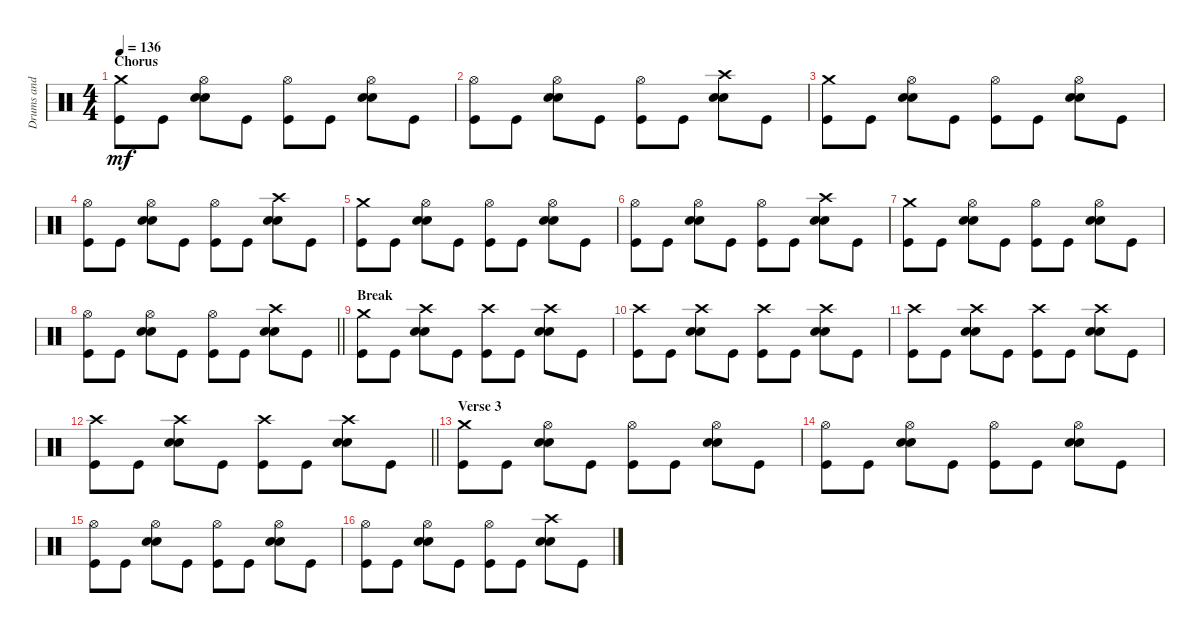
\track ("Drums and Percussions" "Drums and ") {instrument percussion}
\staff {score}
\articulation defaults
\ts (4 4)
\section ("" "Chorus")
\tempo 136
\clef neutral
\ks c
("Crash medium (hit)" "Kick (hit)").8{dy mf} "Kick (hit)".8 ("Hi-Hat (open)" "Electric Snare (hit)" "Electric Snare (hit)").8 "Kick (hit)".8 ("Hi-Hat (open)" "Kick (hit)").8 "Kick (hit)".8 ("Hi-Hat (open)" "Electric Snare (hit)" "Electric Snare (hit)").8 "Kick (hit)".8 |
("Hi-Hat (open)" "Kick (hit)").8 "Kick (hit)".8 ("Hi-Hat (open)" "Electric Snare (hit)" "Electric Snare (hit)").8 "Kick (hit)".8 ("Hi-Hat (open)" "Kick (hit)").8 "Kick (hit)".8 ("Crash high (hit)" "Electric Snare (hit)" "Electric Snare (hit)").8 "Kick (hit)".8 |
("Crash medium (hit)" "Kick (hit)").8 "Kick (hit)".8 ("Hi-Hat (open)" "Electric Snare (hit)" "Electric Snare (hit)").8 "Kick (hit)".8 ("Hi-Hat (open)" "Kick (hit)").8 "Kick (hit)".8 ("Hi-Hat (open)" "Electric Snare (hit)" "Electric Snare (hit)").8 "Kick (hit)".8 |
("Hi-Hat (open)" "Kick (hit)").8 "Kick (hit)".8 ("Hi-Hat (open)" "Electric Snare (hit)" "Electric Snare (hit)").8 "Kick (hit)".8 ("Hi-Hat (open)" "Kick (hit)").8 "Kick (hit)".8 ("Crash high (hit)" "Electric Snare (hit)" "Electric Snare (hit)").8 "Kick (hit)".8 |
("Crash medium (hit)" "Kick (hit)").8 "Kick (hit)".8 ("Hi-Hat (open)" "Electric Snare (hit)" "Electric Snare (hit)").8 "Kick (hit)".8 ("Hi-Hat (open)" "Kick (hit)").8 "Kick (hit)".8 ("Hi-Hat (open)" "Electric Snare (hit)" "Electric Snare (hit)").8 "Kick (hit)".8 |
("Hi-Hat (open)" "Kick (hit)").8 "Kick (hit)".8 ("Hi-Hat (open)" "Electric Snare (hit)" "Electric Snare (hit)").8 "Kick (hit)".8 ("Hi-Hat (open)" "Kick (hit)").8 "Kick (hit)".8 ("Crash high (hit)" "Electric Snare (hit)" "Electric Snare (hit)").8 "Kick (hit)".8 |
("Crash medium (hit)" "Kick (hit)").8 "Kick (hit)".8 ("Hi-Hat (open)" "Electric Snare (hit)" "Electric Snare (hit)").8 "Kick (hit)".8 ("Hi-Hat (open)" "Kick (hit)").8 "Kick (hit)".8 ("Hi-Hat (open)" "Electric Snare (hit)" "Electric Snare (hit)").8 "Kick (hit)".8 |
\barLineRight lightlight
("Hi-Hat (open)" "Kick (hit)").8 "Kick (hit)".8 ("Hi-Hat (open)" "Electric Snare (hit)" "Electric Snare (hit)").8 "Kick (hit)".8 ("Hi-Hat (open)" "Kick (hit)").8 "Kick (hit)".8 ("Crash high (hit)" "Electric Snare (hit)" "Electric Snare (hit)").8 "Kick (hit)".8 |
\section ("" "Break")
("Crash medium (hit)" "Kick (hit)").8 "Kick (hit)".8 ("Crash high (hit)" "Electric Snare (hit)" "Electric Snare (hit)").8 "Kick (hit)".8 ("Crash high (hit)" "Kick (hit)").8 "Kick (hit)".8 ("Crash high (hit)" "Electric Snare (hit)" "Electric Snare (hit)").8 "Kick (hit)".8 |
("Crash high (hit)" "Kick (hit)").8 "Kick (hit)".8 ("Crash high (hit)" "Electric Snare (hit)" "Electric Snare (hit)").8 "Kick (hit)".8 ("Crash high (hit)" "Kick (hit)").8 "Kick (hit)".8 ("Crash high (hit)" "Electric Snare (hit)" "Electric Snare (hit)").8 "Kick (hit)".8 |
("Crash high (hit)" "Kick (hit)").8 "Kick (hit)".8 ("Crash high (hit)" "Electric Snare (hit)" "Electric Snare (hit)").8 "Kick (hit)".8 ("Crash high (hit)" "Kick (hit)").8 "Kick (hit)".8 ("Crash high (hit)" "Electric Snare (hit)" "Electric Snare (hit)").8 "Kick (hit)".8 |
\barLineRight lightlight
("Crash high (hit)" "Kick (hit)").8 "Kick (hit)".8 ("Crash high (hit)" "Electric Snare (hit)" "Electric Snare (hit)").8 "Kick (hit)".8 ("Crash high (hit)" "Kick (hit)").8 "Kick (hit)".8 ("Crash high (hit)" "Electric Snare (hit)" "Electric Snare (hit)").8 "Kick (hit)".8 |
\section ("" "Verse 3")
("Crash medium (hit)" "Kick (hit)").8 "Kick (hit)".8 ("Hi-Hat (open)" "Electric Snare (hit)" "Electric Snare (hit)").8 "Kick (hit)".8 ("Hi-Hat (open)" "Kick (hit)").8 "Kick (hit)".8 ("Hi-Hat (open)" "Electric Snare (hit)" "Electric Snare (hit)").8 "Kick (hit)".8 |
("Hi-Hat (open)" "Kick (hit)").8 "Kick (hit)".8 ("Hi-Hat (open)" "Electric Snare (hit)" "Electric Snare (hit)").8 "Kick (hit)".8 ("Hi-Hat (open)" "Kick (hit)").8 "Kick (hit)".8 ("Hi-Hat (open)" "Electric Snare (hit)" "Electric Snare (hit)").8 "Kick (hit)".8 |
("Hi-Hat (open)" "Kick (hit)").8 "Kick (hit)".8 ("Hi-Hat (open)" "Electric Snare (hit)" "Electric Snare (hit)").8 "Kick (hit)".8 ("Hi-Hat (open)" "Kick (hit)").8 "Kick (hit)".8 ("Hi-Hat (open)" "Electric Snare (hit)" "Electric Snare (hit)").8 "Kick (hit)".8 |
("Hi-Hat (open)" "Kick (hit)").8 "Kick (hit)".8 ("Hi-Hat (open)" "Electric Snare (hit)" "Electric Snare (hit)").8 "Kick (hit)".8 ("Hi-Hat (open)" "Kick (hit)").8 "Kick (hit)".8 ("Crash high (hit)" "Electric Snare (hit)" "Electric Snare (hit)").8 "Kick (hit)".8
